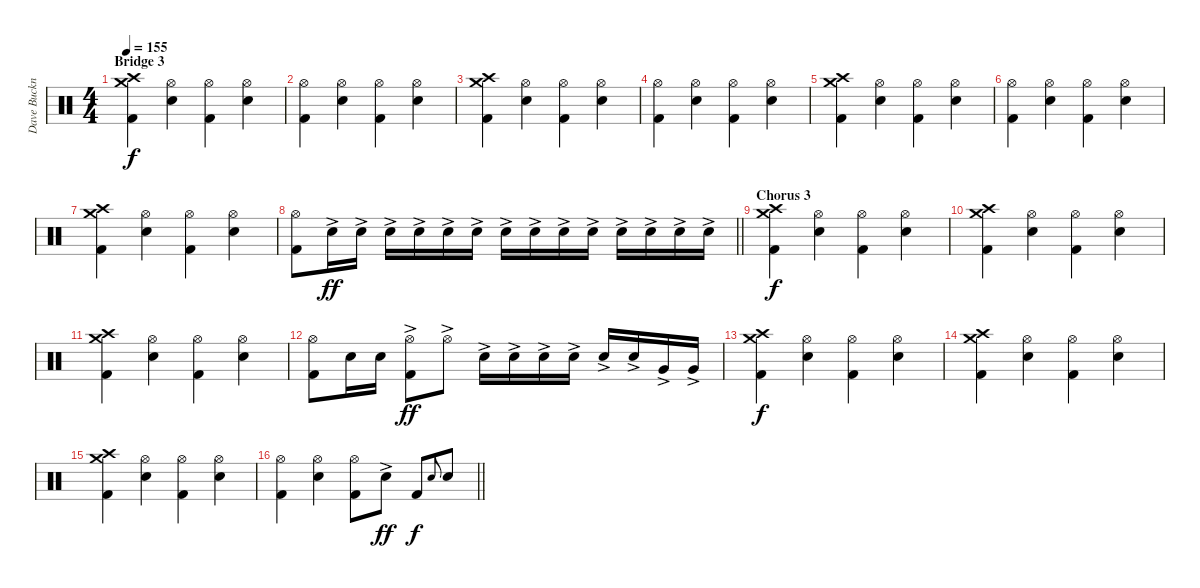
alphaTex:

\track ("Dave Buckner (Drums)" "Dave Buckn") {instrument percussion}
\staff {score}
\articulation defaults
\ts (4 4)
\section ("" "Bridge 3")
\tempo 155
\clef neutral
\ks c
("Crash medium (hit)" "Crash high (hit)" "Kick (hit) 2").4{dy f} ("Hi-Hat (open)" "Electric Snare (hit)").4 ("Hi-Hat (open)" "Kick (hit) 2").4 ("Hi-Hat (open)" "Electric Snare (hit)").4 |
("Hi-Hat (open)" "Kick (hit) 2").4 ("Hi-Hat (open)" "Electric Snare (hit)").4 ("Hi-Hat (open)" "Kick (hit) 2").4 ("Hi-Hat (open)" "Electric Snare (hit)").4 |
("Crash medium (hit)" "Crash high (hit)" "Kick (hit) 2").4 ("Hi-Hat (open)" "Electric Snare (hit)").4 ("Hi-Hat (open)" "Kick (hit) 2").4 ("Hi-Hat (open)" "Electric Snare (hit)").4 |
("Hi-Hat (open)" "Kick (hit) 2").4 ("Hi-Hat (open)" "Electric Snare (hit)").4 ("Hi-Hat (open)" "Kick (hit) 2").4 ("Hi-Hat (open)" "Electric Snare (hit)").4 |
("Crash medium (hit)" "Crash high (hit)" "Kick (hit) 2").4 ("Hi-Hat (open)" "Electric Snare (hit)").4 ("Hi-Hat (open)" "Kick (hit) 2").4 ("Hi-Hat (open)" "Electric Snare (hit)").4 |
("Hi-Hat (open)" "Kick (hit) 2").4 ("Hi-Hat (open)" "Electric Snare (hit)").4 ("Hi-Hat (open)" "Kick (hit) 2").4 ("Hi-Hat (open)" "Electric Snare (hit)").4 |
("Crash medium (hit)" "Crash high (hit)" "Kick (hit) 2").4 ("Hi-Hat (open)" "Electric Snare (hit)").4 ("Hi-Hat (open)" "Kick (hit) 2").4 ("Hi-Hat (open)" "Electric Snare (hit)").4 |
\barLineRight lightlight
("Hi-Hat (open)" "Kick (hit) 2").8 "Electric Snare (hit)"{ac}.16{dy ff} "Electric Snare (hit)"{ac}.16 "Electric Snare (hit)"{ac}.16 "Electric Snare (hit)"{ac}.16 "Electric Snare (hit)"{ac}.16 "Electric Snare (hit)"{ac}.16 "Electric Snare (hit)"{ac}.16 "Electric Snare (hit)"{ac}.16 "Electric Snare (hit)"{ac}.16 "Electric Snare (hit)"{ac}.16 "Electric Snare (hit)"{ac}.16 "Electric Snare (hit)"{ac}.16 "Electric Snare (hit)"{ac}.16 "Electric Snare (hit)"{ac}.16 |
\section ("" "Chorus 3")
("Crash medium (hit)" "Crash high (hit)" "Kick (hit) 2").4{dy f} ("Hi-Hat (open)" "Electric Snare (hit)").4 ("Hi-Hat (open)" "Kick (hit) 2").4 ("Hi-Hat (open)" "Electric Snare (hit)").4 |
("Crash medium (hit)" "Crash high (hit)" "Kick (hit) 2").4 ("Hi-Hat (open)" "Electric Snare (hit)").4 ("Hi-Hat (open)" "Kick (hit) 2").4 ("Hi-Hat (open)" "Electric Snare (hit)").4 |
("Crash medium (hit)" "Crash high (hit)" "Kick (hit) 2").4 ("Hi-Hat (open)" "Electric Snare (hit)").4 ("Hi-Hat (open)" "Kick (hit) 2").4 ("Hi-Hat (open)" "Electric Snare (hit)").4 |
("Hi-Hat (open)" "Kick (hit) 2").8 "Electric Snare (hit)".16 "Electric Snare (hit)".16 ("Hi-Hat (open)"{ac} "Kick (hit) 2").8{dy ff} "Hi-Hat (open)"{ac}.8 "Electric Snare (hit)"{ac}.16 "Electric Snare (hit)"{ac}.16 "Electric Snare (hit)"{ac}.16 "Electric Snare (hit)"{ac}.16 "Electric Snare (hit)"{ac}.16 "Electric Snare (hit)"{ac}.16 "Very Low Tom (hit)"{ac}.16 "Very Low Tom (hit)"{ac}.16 |
("Crash medium (hit)" "Crash high (hit)" "Kick (hit) 2").4{dy f} ("Hi-Hat (open)" "Electric Snare (hit)").4 ("Hi-Hat (open)" "Kick (hit) 2").4 ("Hi-Hat (open)" "Electric Snare (hit)").4 |
("Crash medium (hit)" "Crash high (hit)" "Kick (hit) 2").4 ("Hi-Hat (open)" "Electric Snare (hit)").4 ("Hi-Hat (open)" "Kick (hit) 2").4 ("Hi-Hat (open)" "Electric Snare (hit)").4 |
("Crash medium (hit)" "Crash high (hit)" "Kick (hit) 2").4 ("Hi-Hat (open)" "Electric Snare (hit)").4 ("Hi-Hat (open)" "Kick (hit) 2").4 ("Hi-Hat (open)" "Electric Snare (hit)").4 |
\barLineRight lightlight
("Hi-Hat (open)" "Kick (hit) 2").4 ("Hi-Hat (open)" "Electric Snare (hit)").4 ("Hi-Hat (open)" "Kick (hit) 2").8 "Electric Snare (hit)"{ac}.8{dy ff} "Kick (hit) 2".8{dy f} "Electric Snare (hit)".8{gr onbeat} "Electric Snare (hit)".8
